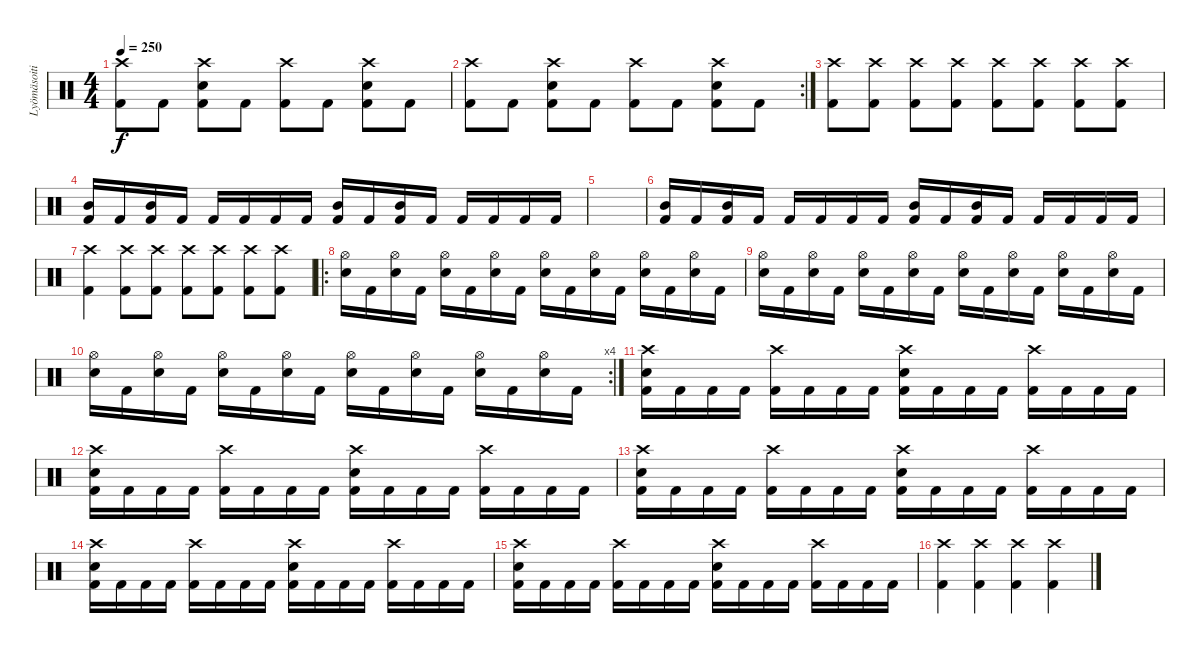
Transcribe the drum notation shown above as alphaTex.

\track ("Lyömäsoitin" "Lyömäsoiti") {instrument percussion}
\staff {score}
\articulation defaults
\ts (4 4)
\tempo 250
\clef neutral
\ks c
("Crash high (hit)" "Kick (hit) 2").8{dy f} "Kick (hit) 2".8 ("Crash high (hit)" "Electric Snare (hit)" "Kick (hit) 2").8 "Kick (hit) 2".8 ("Crash high (hit)" "Kick (hit) 2").8 "Kick (hit) 2".8 ("Crash high (hit)" "Electric Snare (hit)" "Kick (hit) 2").8 "Kick (hit) 2".8 |
\rc 2
("Crash high (hit)" "Kick (hit) 2").8 "Kick (hit) 2".8 ("Crash high (hit)" "Electric Snare (hit)" "Kick (hit) 2").8 "Kick (hit) 2".8 ("Crash high (hit)" "Kick (hit) 2").8 "Kick (hit) 2".8 ("Crash high (hit)" "Electric Snare (hit)" "Kick (hit) 2").8 "Kick (hit) 2".8 |
("Crash high (hit)" "Kick (hit) 2").8 ("Crash high (hit)" "Kick (hit) 2").8 ("Crash high (hit)" "Kick (hit) 2").8 ("Crash high (hit)" "Kick (hit) 2").8 ("Crash high (hit)" "Kick (hit) 2").8 ("Crash high (hit)" "Kick (hit) 2").8 ("Crash high (hit)" "Kick (hit) 2").8 ("Crash high (hit)" "Kick (hit) 2").8 |
("Mid Tom (hit)" "Kick (hit) 2").16 "Kick (hit) 2".16 ("Mid Tom (hit)" "Kick (hit) 2").16 "Kick (hit) 2".16 "Kick (hit) 2".16 "Kick (hit) 2".16 "Kick (hit) 2".16 "Kick (hit) 2".16 ("Mid Tom (hit)" "Kick (hit) 2").16 "Kick (hit) 2".16 ("Mid Tom (hit)" "Kick (hit) 2").16 "Kick (hit) 2".16 "Kick (hit) 2".16 "Kick (hit) 2".16 "Kick (hit) 2".16 "Kick (hit) 2".16 |
|
("Mid Tom (hit)" "Kick (hit) 2").16 "Kick (hit) 2".16 ("Mid Tom (hit)" "Kick (hit) 2").16 "Kick (hit) 2".16 "Kick (hit) 2".16 "Kick (hit) 2".16 "Kick (hit) 2".16 "Kick (hit) 2".16 ("Mid Tom (hit)" "Kick (hit) 2").16 "Kick (hit) 2".16 ("Mid Tom (hit)" "Kick (hit) 2").16 "Kick (hit) 2".16 "Kick (hit) 2".16 "Kick (hit) 2".16 "Kick (hit) 2".16 "Kick (hit) 2".16 |
("Crash high (hit)" "Kick (hit) 2").4 ("Crash high (hit)" "Kick (hit) 2").8 ("Crash high (hit)" "Kick (hit) 2").8 ("Crash high (hit)" "Kick (hit) 2").8 ("Crash high (hit)" "Kick (hit) 2").8 ("Crash high (hit)" "Kick (hit) 2").8 ("Crash high (hit)" "Kick (hit) 2").8 |
\ro
("Hi-Hat (open)" "Electric Snare (hit)").16 "Kick (hit) 2".16 ("Hi-Hat (open)" "Electric Snare (hit)").16 "Kick (hit) 2".16 ("Hi-Hat (open)" "Electric Snare (hit)").16 "Kick (hit) 2".16 ("Hi-Hat (open)" "Electric Snare (hit)").16 "Kick (hit) 2".16 ("Hi-Hat (open)" "Electric Snare (hit)").16 "Kick (hit) 2".16 ("Hi-Hat (open)" "Electric Snare (hit)").16 "Kick (hit) 2".16 ("Hi-Hat (open)" "Electric Snare (hit)").16 "Kick (hit) 2".16 ("Hi-Hat (open)" "Electric Snare (hit)").16 "Kick (hit) 2".16 |
("Hi-Hat (open)" "Electric Snare (hit)").16 "Kick (hit) 2".16 ("Hi-Hat (open)" "Electric Snare (hit)").16 "Kick (hit) 2".16 ("Hi-Hat (open)" "Electric Snare (hit)").16 "Kick (hit) 2".16 ("Hi-Hat (open)" "Electric Snare (hit)").16 "Kick (hit) 2".16 ("Hi-Hat (open)" "Electric Snare (hit)").16 "Kick (hit) 2".16 ("Hi-Hat (open)" "Electric Snare (hit)").16 "Kick (hit) 2".16 ("Hi-Hat (open)" "Electric Snare (hit)").16 "Kick (hit) 2".16 ("Hi-Hat (open)" "Electric Snare (hit)").16 "Kick (hit) 2".16 |
\rc 4
("Hi-Hat (open)" "Electric Snare (hit)").16 "Kick (hit) 2".16 ("Hi-Hat (open)" "Electric Snare (hit)").16 "Kick (hit) 2".16 ("Hi-Hat (open)" "Electric Snare (hit)").16 "Kick (hit) 2".16 ("Hi-Hat (open)" "Electric Snare (hit)").16 "Kick (hit) 2".16 ("Hi-Hat (open)" "Electric Snare (hit)").16 "Kick (hit) 2".16 ("Hi-Hat (open)" "Electric Snare (hit)").16 "Kick (hit) 2".16 ("Hi-Hat (open)" "Electric Snare (hit)").16 "Kick (hit) 2".16 ("Hi-Hat (open)" "Electric Snare (hit)").16 "Kick (hit) 2".16 |
("Crash high (hit)" "Electric Snare (hit)" "Kick (hit) 2").16 "Kick (hit) 2".16 "Kick (hit) 2".16 "Kick (hit) 2".16 ("Crash high (hit)" "Kick (hit) 2").16 "Kick (hit) 2".16 "Kick (hit) 2".16 "Kick (hit) 2".16 ("Crash high (hit)" "Electric Snare (hit)" "Kick (hit) 2").16 "Kick (hit) 2".16 "Kick (hit) 2".16 "Kick (hit) 2".16 ("Crash high (hit)" "Kick (hit) 2").16 "Kick (hit) 2".16 "Kick (hit) 2".16 "Kick (hit) 2".16 |
("Crash high (hit)" "Electric Snare (hit)" "Kick (hit) 2").16 "Kick (hit) 2".16 "Kick (hit) 2".16 "Kick (hit) 2".16 ("Crash high (hit)" "Kick (hit) 2").16 "Kick (hit) 2".16 "Kick (hit) 2".16 "Kick (hit) 2".16 ("Crash high (hit)" "Electric Snare (hit)" "Kick (hit) 2").16 "Kick (hit) 2".16 "Kick (hit) 2".16 "Kick (hit) 2".16 ("Crash high (hit)" "Kick (hit) 2").16 "Kick (hit) 2".16 "Kick (hit) 2".16 "Kick (hit) 2".16 |
("Crash high (hit)" "Electric Snare (hit)" "Kick (hit) 2").16 "Kick (hit) 2".16 "Kick (hit) 2".16 "Kick (hit) 2".16 ("Crash high (hit)" "Kick (hit) 2").16 "Kick (hit) 2".16 "Kick (hit) 2".16 "Kick (hit) 2".16 ("Crash high (hit)" "Electric Snare (hit)" "Kick (hit) 2").16 "Kick (hit) 2".16 "Kick (hit) 2".16 "Kick (hit) 2".16 ("Crash high (hit)" "Kick (hit) 2").16 "Kick (hit) 2".16 "Kick (hit) 2".16 "Kick (hit) 2".16 |
("Crash high (hit)" "Electric Snare (hit)" "Kick (hit) 2").16 "Kick (hit) 2".16 "Kick (hit) 2".16 "Kick (hit) 2".16 ("Crash high (hit)" "Kick (hit) 2").16 "Kick (hit) 2".16 "Kick (hit) 2".16 "Kick (hit) 2".16 ("Crash high (hit)" "Electric Snare (hit)" "Kick (hit) 2").16 "Kick (hit) 2".16 "Kick (hit) 2".16 "Kick (hit) 2".16 ("Crash high (hit)" "Kick (hit) 2").16 "Kick (hit) 2".16 "Kick (hit) 2".16 "Kick (hit) 2".16 |
("Crash high (hit)" "Electric Snare (hit)" "Kick (hit) 2").16 "Kick (hit) 2".16 "Kick (hit) 2".16 "Kick (hit) 2".16 ("Crash high (hit)" "Kick (hit) 2").16 "Kick (hit) 2".16 "Kick (hit) 2".16 "Kick (hit) 2".16 ("Crash high (hit)" "Electric Snare (hit)" "Kick (hit) 2").16 "Kick (hit) 2".16 "Kick (hit) 2".16 "Kick (hit) 2".16 ("Crash high (hit)" "Kick (hit) 2").16 "Kick (hit) 2".16 "Kick (hit) 2".16 "Kick (hit) 2".16 |
("Crash high (hit)" "Kick (hit) 2").4 ("Crash high (hit)" "Kick (hit) 2").4 ("Crash high (hit)" "Kick (hit) 2").4 ("Crash high (hit)" "Kick (hit) 2").4
